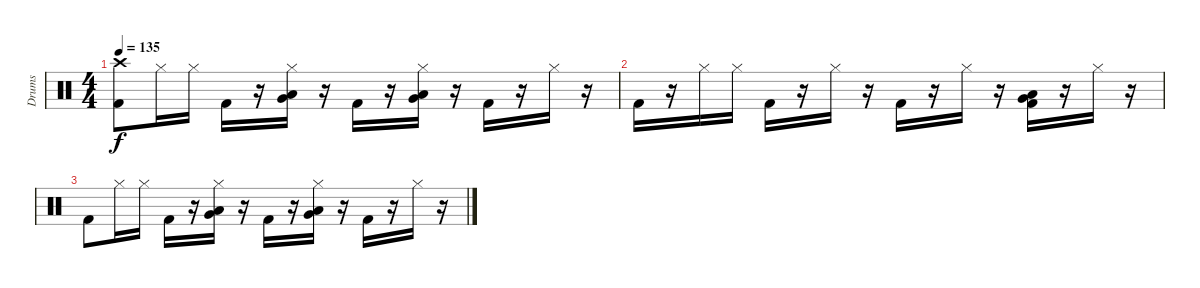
\track ("Drums" "Drums") {instrument percussion}
\staff {score}
\articulation defaults
\ts (4 4)
\tempo 135
\clef neutral
\ks c
("Kick (hit) 2" "Crash high (hit)").8{dy f} "Hi-Hat (closed)".16 "Hi-Hat (closed)".16 "Kick (hit) 2".16 r.16 ("Hi-Hat (closed)" "Very Low Tom (hit)" "Low Floor Tom (hit)").16 r.16 "Kick (hit) 2".16 r.16 ("Hi-Hat (closed)" "Low Floor Tom (hit)" "Very Low Tom (hit)").16 r.16 "Kick (hit) 2".16 r.16 "Hi-Hat (closed)".16 r.16 |
"Kick (hit) 2".16 r.16 "Hi-Hat (closed)".16 "Hi-Hat (closed)".16 "Kick (hit) 2".16 r.16 "Hi-Hat (closed)".16 r.16 "Kick (hit) 2".16 r.16 "Hi-Hat (closed)".16 r.16 ("Kick (hit) 2" "Low Floor Tom (hit)" "Very Low Tom (hit)").16 r.16 "Hi-Hat (closed)".16 r.16 |
"Kick (hit) 2".8 "Hi-Hat (closed)".16 "Hi-Hat (closed)".16 "Kick (hit) 2".16 r.16 ("Hi-Hat (closed)" "Very Low Tom (hit)" "Low Floor Tom (hit)").16 r.16 "Kick (hit) 2".16 r.16 ("Hi-Hat (closed)" "Low Floor Tom (hit)" "Very Low Tom (hit)").16 r.16 "Kick (hit) 2".16 r.16 "Hi-Hat (closed)".16 r.16
